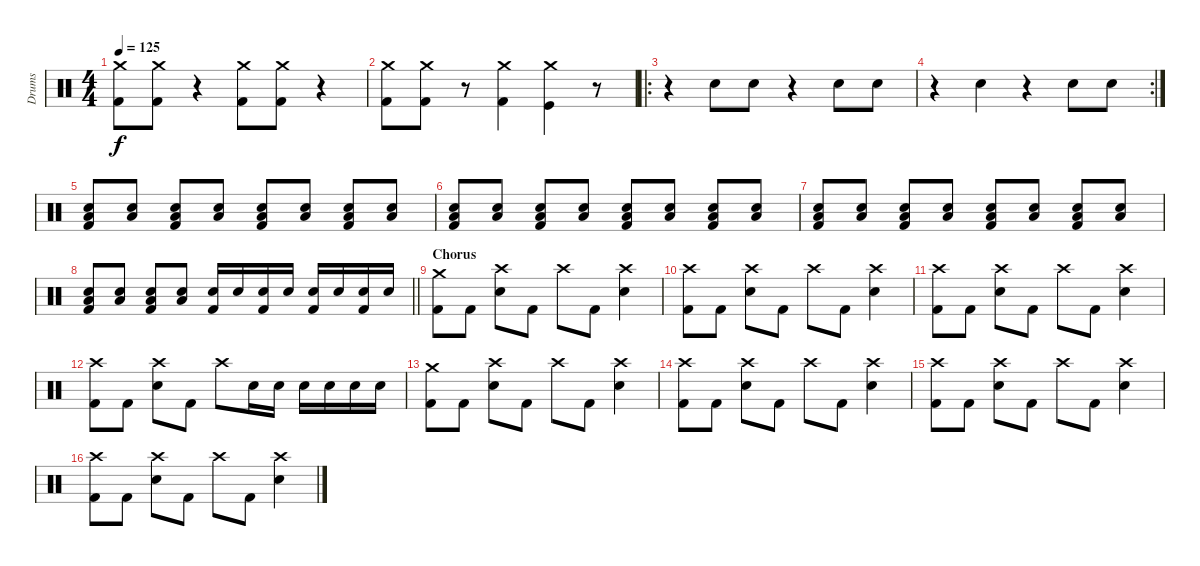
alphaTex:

\track ("Drums" "Drums") {instrument percussion}
\staff {score}
\articulation defaults
\ts (4 4)
\tempo 125
\clef neutral
\ks c
("Crash medium (hit)" "Kick (hit) 2").8{dy f} ("Crash medium (hit)" "Kick (hit) 2").8 r.4 ("Crash medium (hit)" "Kick (hit) 2").8 ("Crash medium (hit)" "Kick (hit) 2").8 r.4 |
("Crash medium (hit)" "Kick (hit) 2").8 ("Crash medium (hit)" "Kick (hit) 2").8 r.8 ("Crash medium (hit)" "Kick (hit) 2").4 ("Crash medium (hit)" "Kick (hit)").4 r.8 |
\ro
r.4 "Hand Clap (hit)".8 "Hand Clap (hit)".8 r.4 "Hand Clap (hit)".8 "Hand Clap (hit)".8 |
\rc 2
r.4 "Hand Clap (hit)".4 r.4 "Hand Clap (hit)".8 "Hand Clap (hit)".8 |
("Low Floor Tom (hit)" "Electric Snare (hit)" "Kick (hit) 2").8 ("Low Floor Tom (hit)" "Electric Snare (hit)").8 ("Low Floor Tom (hit)" "Electric Snare (hit)" "Kick (hit) 2").8 ("Low Floor Tom (hit)" "Electric Snare (hit)").8 ("Low Floor Tom (hit)" "Electric Snare (hit)" "Kick (hit) 2").8 ("Low Floor Tom (hit)" "Electric Snare (hit)").8 ("Low Floor Tom (hit)" "Electric Snare (hit)" "Kick (hit) 2").8 ("Low Floor Tom (hit)" "Electric Snare (hit)").8 |
("Low Floor Tom (hit)" "Electric Snare (hit)" "Kick (hit) 2").8 ("Low Floor Tom (hit)" "Electric Snare (hit)").8 ("Low Floor Tom (hit)" "Electric Snare (hit)" "Kick (hit) 2").8 ("Low Floor Tom (hit)" "Electric Snare (hit)").8 ("Low Floor Tom (hit)" "Electric Snare (hit)" "Kick (hit) 2").8 ("Low Floor Tom (hit)" "Electric Snare (hit)").8 ("Low Floor Tom (hit)" "Electric Snare (hit)" "Kick (hit) 2").8 ("Low Floor Tom (hit)" "Electric Snare (hit)").8 |
("Low Floor Tom (hit)" "Electric Snare (hit)" "Kick (hit) 2").8 ("Low Floor Tom (hit)" "Electric Snare (hit)").8 ("Low Floor Tom (hit)" "Electric Snare (hit)" "Kick (hit) 2").8 ("Low Floor Tom (hit)" "Electric Snare (hit)").8 ("Low Floor Tom (hit)" "Electric Snare (hit)" "Kick (hit) 2").8 ("Low Floor Tom (hit)" "Electric Snare (hit)").8 ("Low Floor Tom (hit)" "Electric Snare (hit)" "Kick (hit) 2").8 ("Low Floor Tom (hit)" "Electric Snare (hit)").8 |
\barLineRight lightlight
("Low Floor Tom (hit)" "Electric Snare (hit)" "Kick (hit) 2").8 ("Low Floor Tom (hit)" "Electric Snare (hit)").8 ("Low Floor Tom (hit)" "Electric Snare (hit)" "Kick (hit) 2").8 ("Low Floor Tom (hit)" "Electric Snare (hit)").8 ("Electric Snare (hit)" "Kick (hit) 2").16 "Electric Snare (hit)".16 ("Electric Snare (hit)" "Kick (hit) 2").16 "Electric Snare (hit)".16 ("Electric Snare (hit)" "Kick (hit) 2").16 "Electric Snare (hit)".16 ("Electric Snare (hit)" "Kick (hit) 2").16 "Electric Snare (hit)".16 |
\section ("" "Chorus")
("Crash medium (hit)" "Kick (hit) 2").8 "Kick (hit) 2".8 ("Crash high (hit)" "Electric Snare (hit)").8 "Kick (hit) 2".8 "Crash high (hit)".8 "Kick (hit) 2".8 ("Crash high (hit)" "Electric Snare (hit)").4 |
("Crash high (hit)" "Kick (hit) 2").8 "Kick (hit) 2".8 ("Crash high (hit)" "Electric Snare (hit)").8 "Kick (hit) 2".8 "Crash high (hit)".8 "Kick (hit) 2".8 ("Crash high (hit)" "Electric Snare (hit)").4 |
("Crash high (hit)" "Kick (hit) 2").8 "Kick (hit) 2".8 ("Crash high (hit)" "Electric Snare (hit)").8 "Kick (hit) 2".8 "Crash high (hit)".8 "Kick (hit) 2".8 ("Crash high (hit)" "Electric Snare (hit)").4 |
("Crash high (hit)" "Kick (hit) 2").8 "Kick (hit) 2".8 ("Crash high (hit)" "Electric Snare (hit)").8 "Kick (hit) 2".8 "Crash high (hit)".8 "Electric Snare (hit)".16 "Electric Snare (hit)".16 "Electric Snare (hit)".16 "Electric Snare (hit)".16 "Electric Snare (hit)".16 "Electric Snare (hit)".16 |
("Crash medium (hit)" "Kick (hit) 2").8 "Kick (hit) 2".8 ("Crash high (hit)" "Electric Snare (hit)").8 "Kick (hit) 2".8 "Crash high (hit)".8 "Kick (hit) 2".8 ("Crash high (hit)" "Electric Snare (hit)").4 |
("Crash high (hit)" "Kick (hit) 2").8 "Kick (hit) 2".8 ("Crash high (hit)" "Electric Snare (hit)").8 "Kick (hit) 2".8 "Crash high (hit)".8 "Kick (hit) 2".8 ("Crash high (hit)" "Electric Snare (hit)").4 |
("Crash high (hit)" "Kick (hit) 2").8 "Kick (hit) 2".8 ("Crash high (hit)" "Electric Snare (hit)").8 "Kick (hit) 2".8 "Crash high (hit)".8 "Kick (hit) 2".8 ("Crash high (hit)" "Electric Snare (hit)").4 |
("Crash high (hit)" "Kick (hit) 2").8 "Kick (hit) 2".8 ("Crash high (hit)" "Electric Snare (hit)").8 "Kick (hit) 2".8 "Crash high (hit)".8 "Kick (hit) 2".8 ("Crash high (hit)" "Electric Snare (hit)").4
